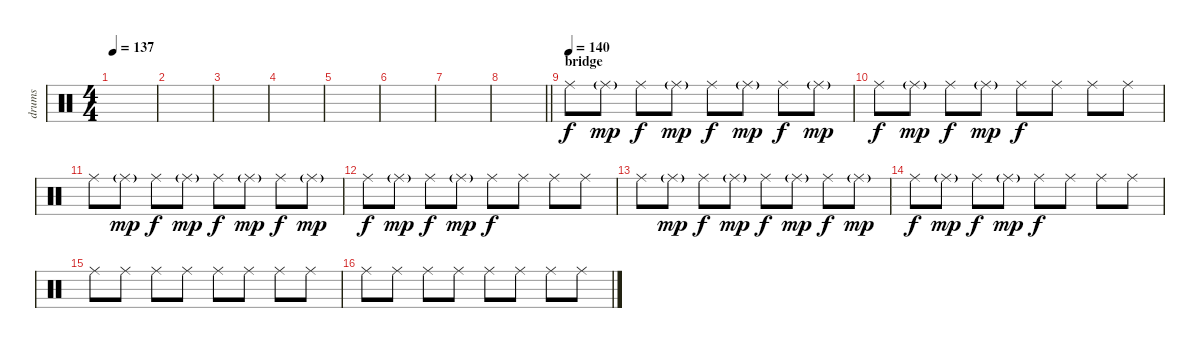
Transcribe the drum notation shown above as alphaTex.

\track ("drums" "drums") {instrument percussion}
\staff {score}
\articulation defaults
\ts (4 4)
\tempo 137
\clef neutral
\ks c
|
|
|
|
|
|
|
\barLineRight lightlight
|
\section ("" "bridge")
\tempo (140)
"Ride (middle)".8 "Ride (middle)"{g}.8{dy mp} "Ride (middle)".8{dy f} "Ride (middle)"{g}.8{dy mp} "Ride (middle)".8{dy f} "Ride (middle)"{g}.8{dy mp} "Ride (middle)".8{dy f} "Ride (middle)"{g}.8{dy mp} |
"Ride (middle)".8{dy f} "Ride (middle)"{g}.8{dy mp} "Ride (middle)".8{dy f} "Ride (middle)"{g}.8{dy mp} "Ride (middle)".8{dy f} "Ride (middle)".8 "Ride (middle)".8 "Ride (middle)".8 |
"Ride (middle)".8 "Ride (middle)"{g}.8{dy mp} "Ride (middle)".8{dy f} "Ride (middle)"{g}.8{dy mp} "Ride (middle)".8{dy f} "Ride (middle)"{g}.8{dy mp} "Ride (middle)".8{dy f} "Ride (middle)"{g}.8{dy mp} |
"Ride (middle)".8{dy f} "Ride (middle)"{g}.8{dy mp} "Ride (middle)".8{dy f} "Ride (middle)"{g}.8{dy mp} "Ride (middle)".8{dy f} "Ride (middle)".8 "Ride (middle)".8 "Ride (middle)".8 |
"Ride (middle)".8 "Ride (middle)"{g}.8{dy mp} "Ride (middle)".8{dy f} "Ride (middle)"{g}.8{dy mp} "Ride (middle)".8{dy f} "Ride (middle)"{g}.8{dy mp} "Ride (middle)".8{dy f} "Ride (middle)"{g}.8{dy mp} |
"Ride (middle)".8{dy f} "Ride (middle)"{g}.8{dy mp} "Ride (middle)".8{dy f} "Ride (middle)"{g}.8{dy mp} "Ride (middle)".8{dy f} "Ride (middle)".8 "Ride (middle)".8 "Ride (middle)".8 |
"Ride (middle)".8 "Ride (middle)".8 "Ride (middle)".8 "Ride (middle)".8 "Ride (middle)".8 "Ride (middle)".8 "Ride (middle)".8 "Ride (middle)".8 |
"Ride (middle)".8 "Ride (middle)".8 "Ride (middle)".8 "Ride (middle)".8 "Ride (middle)".8 "Ride (middle)".8 "Ride (middle)".8 "Ride (middle)".8
